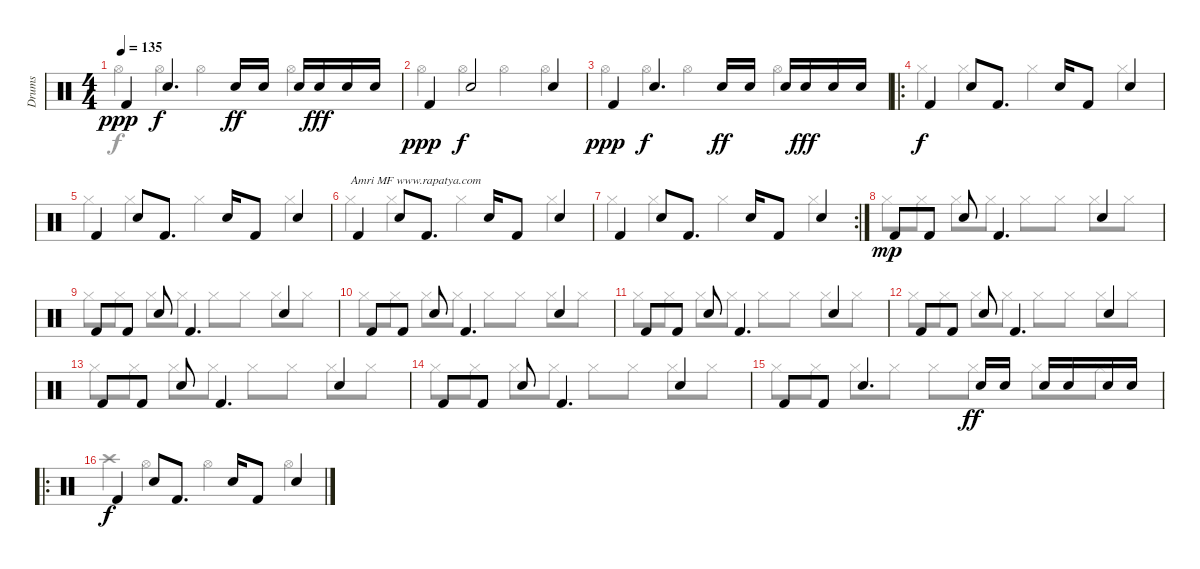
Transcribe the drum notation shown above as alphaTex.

\track ("Drums" "Drums") {instrument percussion}
\staff {score}
\articulation defaults
\voice
\ts (4 4)
\tempo 135
\clef neutral
\ks c "Kick (hit) 2".4{dy ppp} "Snare (hit) 2".4{d dy f} "Snare (hit) 2".16{dy ff} "Snare (hit) 2".16 "Snare (hit) 2".16 "Snare (hit) 2".16{dy fff} "Snare (hit) 2".16 "Snare (hit) 2".16
|
"Kick (hit) 2".4{dy ppp} "Snare (hit) 2".2{dy f} "Snare (hit) 2".4 |
"Kick (hit) 2".4{dy ppp} "Snare (hit) 2".4{d dy f} "Snare (hit) 2".16{dy ff} "Snare (hit) 2".16 "Snare (hit) 2".16 "Snare (hit) 2".16{dy fff} "Snare (hit) 2".16 "Snare (hit) 2".16 |
\ro "Kick (hit) 2".4{dy f} "Snare (hit) 2".8 "Kick (hit) 2".8{d} "Snare (hit) 2".16 "Kick (hit) 2".8 "Snare (hit) 2".4
|
"Kick (hit) 2".4 "Snare (hit) 2".8 "Kick (hit) 2".8{d} "Snare (hit) 2".16 "Kick (hit) 2".8 "Snare (hit) 2".4 |
"Kick (hit) 2".4{txt "Amri MF www.rapatya.com"} "Snare (hit) 2".8 "Kick (hit) 2".8{d} "Snare (hit) 2".16 "Kick (hit) 2".8 "Snare (hit) 2".4 |
\rc 2 "Kick (hit) 2".4 "Snare (hit) 2".8 "Kick (hit) 2".8{d} "Snare (hit) 2".16 "Kick (hit) 2".8 "Snare (hit) 2".4
|
"Kick (hit) 2".8{dy mp} "Kick (hit) 2".8 "Snare (hit) 2".8 "Kick (hit) 2".4{d} "Snare (hit) 2".4 |
"Kick (hit) 2".8 "Kick (hit) 2".8 "Snare (hit) 2".8 "Kick (hit) 2".4{d} "Snare (hit) 2".4 |
"Kick (hit) 2".8 "Kick (hit) 2".8 "Snare (hit) 2".8 "Kick (hit) 2".4{d} "Snare (hit) 2".4 |
"Kick (hit) 2".8 "Kick (hit) 2".8 "Snare (hit) 2".8 "Kick (hit) 2".4{d} "Snare (hit) 2".4 |
"Kick (hit) 2".8 "Kick (hit) 2".8 "Snare (hit) 2".8 "Kick (hit) 2".4{d} "Snare (hit) 2".4 |
"Kick (hit) 2".8 "Kick (hit) 2".8 "Snare (hit) 2".8 "Kick (hit) 2".4{d} "Snare (hit) 2".4 |
"Kick (hit) 2".8 "Kick (hit) 2".8 "Snare (hit) 2".8 "Kick (hit) 2".4{d} "Snare (hit) 2".4 |
"Kick (hit) 2".8 "Kick (hit) 2".8 "Snare (hit) 2".4{d} "Snare (hit) 2".16{dy ff} "Snare (hit) 2".16 "Snare (hit) 2".16 "Snare (hit) 2".16 "Snare (hit) 2".16 "Snare (hit) 2".16 |
\ro "Kick (hit) 2".4{dy f} "Snare (hit) 2".8 "Kick (hit) 2".8{d} "Snare (hit) 2".16 "Kick (hit) 2".8 "Snare (hit) 2".4
\voice
\clef neutral
\ottava regular
\simile none
\ks c "Hi-Hat (open)".4{dy f} "Hi-Hat (open)".4 "Hi-Hat (open)".4 "Hi-Hat (open)".4
|
"Hi-Hat (open)".4 "Hi-Hat (open)".4 "Hi-Hat (open)".4 "Hi-Hat (open)".4 |
"Hi-Hat (open)".4 "Hi-Hat (open)".4 "Hi-Hat (open)".4 "Hi-Hat (open)".4 |
"Hi-Hat (closed)".4 "Hi-Hat (closed)".4 "Hi-Hat (closed)".4 "Hi-Hat (closed)".4 |
"Hi-Hat (closed)".4 "Hi-Hat (closed)".4 "Hi-Hat (closed)".4 "Hi-Hat (closed)".4 |
"Hi-Hat (closed)".4 "Hi-Hat (closed)".4 "Hi-Hat (closed)".4 "Hi-Hat (closed)".4 |
"Hi-Hat (closed)".4 "Hi-Hat (closed)".4 "Hi-Hat (closed)".4 "Hi-Hat (closed)".4 |
"Hi-Hat (closed)".8 "Hi-Hat (closed)".8 "Hi-Hat (closed)".8 "Hi-Hat (closed)".8 "Hi-Hat (closed)".8 "Hi-Hat (closed)".8 "Hi-Hat (closed)".8 "Hi-Hat (closed)".8 |
"Hi-Hat (closed)".8 "Hi-Hat (closed)".8 "Hi-Hat (closed)".8 "Hi-Hat (closed)".8 "Hi-Hat (closed)".8 "Hi-Hat (closed)".8 "Hi-Hat (closed)".8 "Hi-Hat (closed)".8 |
"Hi-Hat (closed)".8 "Hi-Hat (closed)".8 "Hi-Hat (closed)".8 "Hi-Hat (closed)".8 "Hi-Hat (closed)".8 "Hi-Hat (closed)".8 "Hi-Hat (closed)".8 "Hi-Hat (closed)".8 |
"Hi-Hat (closed)".8 "Hi-Hat (closed)".8 "Hi-Hat (closed)".8 "Hi-Hat (closed)".8 "Hi-Hat (closed)".8 "Hi-Hat (closed)".8 "Hi-Hat (closed)".8 "Hi-Hat (closed)".8 |
"Hi-Hat (closed)".8 "Hi-Hat (closed)".8 "Hi-Hat (closed)".8 "Hi-Hat (closed)".8 "Hi-Hat (closed)".8 "Hi-Hat (closed)".8 "Hi-Hat (closed)".8 "Hi-Hat (closed)".8 |
"Hi-Hat (closed)".8 "Hi-Hat (closed)".8 "Hi-Hat (closed)".8 "Hi-Hat (closed)".8 "Hi-Hat (closed)".8 "Hi-Hat (closed)".8 "Hi-Hat (closed)".8 "Hi-Hat (closed)".8 |
"Hi-Hat (closed)".8 "Hi-Hat (closed)".8 "Hi-Hat (closed)".8 "Hi-Hat (closed)".8 "Hi-Hat (closed)".8 "Hi-Hat (closed)".8 "Hi-Hat (closed)".8 "Hi-Hat (closed)".8 |
"Hi-Hat (closed)".8 "Hi-Hat (closed)".8 "Hi-Hat (closed)".8 "Hi-Hat (closed)".8 "Hi-Hat (closed)".8 "Hi-Hat (closed)".8 "Hi-Hat (closed)".8 "Hi-Hat (closed)".8 |
"Crash high (hit)".4 "Hi-Hat (open)".4 "Hi-Hat (open)".4 "Hi-Hat (open)".4
